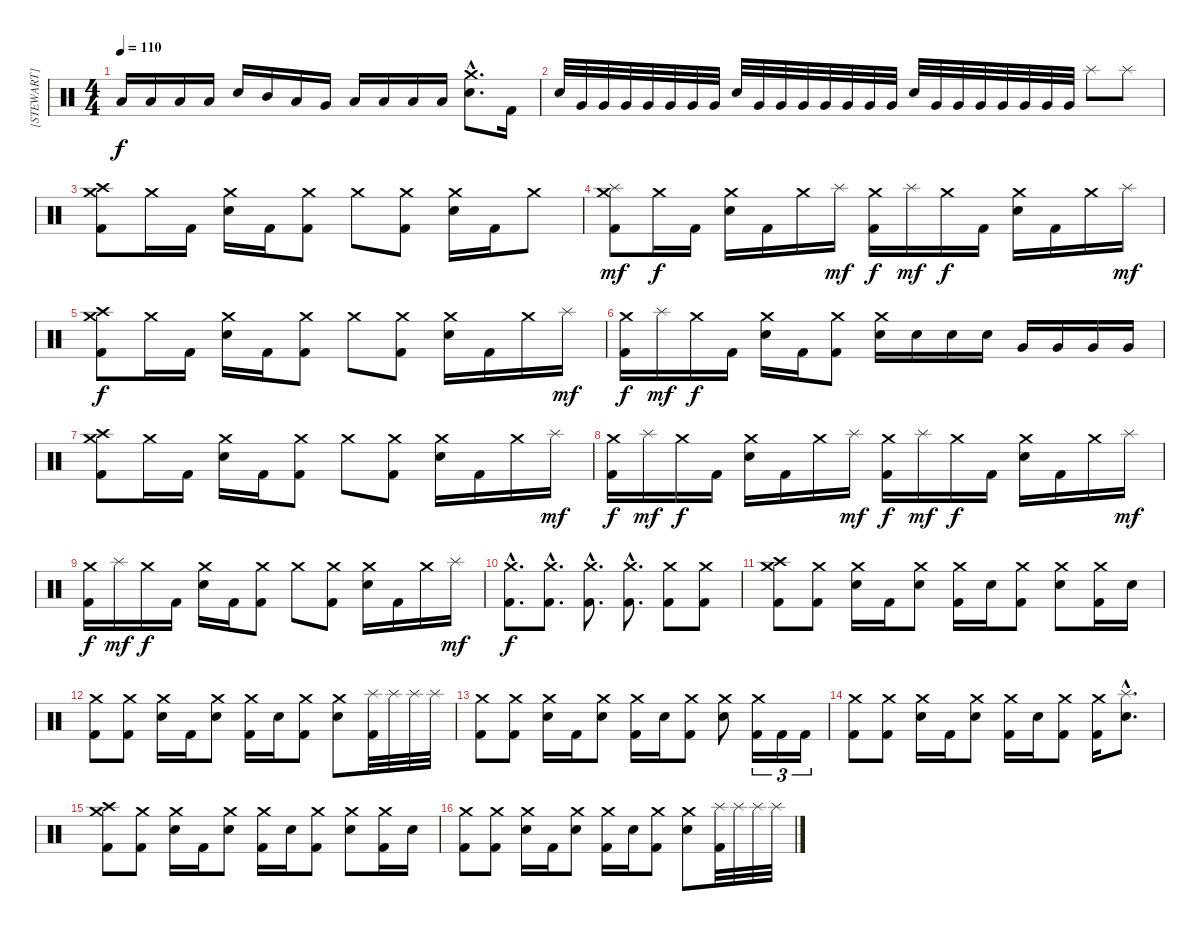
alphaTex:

\track ("[STEWART]" "[STEWART]") {instrument percussion}
\staff {score}
\articulation defaults
\ts (4 4)
\tempo 110
\clef neutral
\ks c "Low Floor Tom (hit)".16{dy f} "Low Floor Tom (hit)".16 "Low Floor Tom (hit)".16 "Low Floor Tom (hit)".16 "Electric Snare (hit)".16 "Mid Tom (hit)".16 "Low Tom (hit)".16 "Very Low Tom (hit)".16 "Low Floor Tom (hit)".16 "Low Floor Tom (hit)".16 "Low Floor Tom (hit)".16 "Low Floor Tom (hit)".16
("Crash medium (hit)"{hac} "Electric Snare (hit)"{hac}).8{d} "Kick (hit) 2".16 |
"Electric Snare (hit)".32 "Very Low Tom (hit)".32 "Very Low Tom (hit)".32 "Very Low Tom (hit)".32 "Very Low Tom (hit)".32 "Very Low Tom (hit)".32 "Very Low Tom (hit)".32 "Very Low Tom (hit)".32 "Electric Snare (hit)".32 "Very Low Tom (hit)".32 "Very Low Tom (hit)".32 "Very Low Tom (hit)".32 "Very Low Tom (hit)".32 "Very Low Tom (hit)".32 "Very Low Tom (hit)".32 "Very Low Tom (hit)".32 "Electric Snare (hit)".32 "Very Low Tom (hit)".32 "Very Low Tom (hit)".32 "Very Low Tom (hit)".32 "Very Low Tom (hit)".32 "Very Low Tom (hit)".32 "Very Low Tom (hit)".32 "Very Low Tom (hit)".32 "Splash (hit)".8 "Splash (hit)".8 |
("Crash medium (hit)" "Crash high (hit)" "Kick (hit) 2").8 "Crash medium (hit)".16 "Kick (hit) 2".16 ("Crash medium (hit)" "Electric Snare (hit)").16 "Kick (hit) 2".16 ("Crash medium (hit)" "Kick (hit) 2").8 "Crash medium (hit)".8 ("Crash medium (hit)" "Kick (hit) 2").8 ("Crash medium (hit)" "Electric Snare (hit)").16 "Kick (hit) 2".16 "Crash medium (hit)".8 |
("Crash medium (hit)" "Splash (hit)" "Kick (hit) 2").8{dy mf} "Crash medium (hit)".16{dy f} "Kick (hit) 2".16 ("Crash medium (hit)" "Electric Snare (hit)").16 "Kick (hit) 2".16 "Crash medium (hit)".16 "Splash (hit)".16{dy mf} ("Crash medium (hit)" "Kick (hit) 2").16{dy f} "Splash (hit)".16{dy mf} "Crash medium (hit)".16{dy f} "Kick (hit) 2".16 ("Crash medium (hit)" "Electric Snare (hit)").16 "Kick (hit) 2".16 "Crash medium (hit)".16 "Splash (hit)".16{dy mf} |
("Crash medium (hit)" "Crash high (hit)" "Kick (hit) 2").8{dy f} "Crash medium (hit)".16 "Kick (hit) 2".16 ("Crash medium (hit)" "Electric Snare (hit)").16 "Kick (hit) 2".16 ("Crash medium (hit)" "Kick (hit) 2").8 "Crash medium (hit)".8 ("Crash medium (hit)" "Kick (hit) 2").8 ("Crash medium (hit)" "Electric Snare (hit)").16 "Kick (hit) 2".16 "Crash medium (hit)".16 "Splash (hit)".16{dy mf} |
("Crash medium (hit)" "Kick (hit) 2").16{dy f} "Splash (hit)".16{dy mf} "Crash medium (hit)".16{dy f} "Kick (hit) 2".16 ("Crash medium (hit)" "Electric Snare (hit)").16 "Kick (hit) 2".16 ("Crash medium (hit)" "Kick (hit) 2").8 ("Crash medium (hit)" "Electric Snare (hit)").16 "Electric Snare (hit)".16 "Electric Snare (hit)".16 "Electric Snare (hit)".16 "Very Low Tom (hit)".16 "Very Low Tom (hit)".16 "Very Low Tom (hit)".16 "Very Low Tom (hit)".16 |
("Crash medium (hit)" "Crash high (hit)" "Kick (hit) 2").8 "Crash medium (hit)".16 "Kick (hit) 2".16 ("Crash medium (hit)" "Electric Snare (hit)").16 "Kick (hit) 2".16 ("Crash medium (hit)" "Kick (hit) 2").8 "Crash medium (hit)".8 ("Crash medium (hit)" "Kick (hit) 2").8 ("Crash medium (hit)" "Electric Snare (hit)").16 "Kick (hit) 2".16 "Crash medium (hit)".16 "Splash (hit)".16{dy mf} |
("Crash medium (hit)" "Kick (hit) 2").16{dy f} "Splash (hit)".16{dy mf} "Crash medium (hit)".16{dy f} "Kick (hit) 2".16 ("Crash medium (hit)" "Electric Snare (hit)").16 "Kick (hit) 2".16 "Crash medium (hit)".16 "Splash (hit)".16{dy mf} ("Crash medium (hit)" "Kick (hit) 2").16{dy f} "Splash (hit)".16{dy mf} "Crash medium (hit)".16{dy f} "Kick (hit) 2".16 ("Crash medium (hit)" "Electric Snare (hit)").16 "Kick (hit) 2".16 "Crash medium (hit)".16 "Splash (hit)".16{dy mf} |
("Crash medium (hit)" "Kick (hit) 2").16{dy f} "Splash (hit)".16{dy mf} "Crash medium (hit)".16{dy f} "Kick (hit) 2".16 ("Crash medium (hit)" "Electric Snare (hit)").16 "Kick (hit) 2".16 ("Crash medium (hit)" "Kick (hit) 2").8 "Crash medium (hit)".8 ("Crash medium (hit)" "Kick (hit) 2").8 ("Crash medium (hit)" "Electric Snare (hit)").16 "Kick (hit) 2".16 "Crash medium (hit)".16 "Splash (hit)".16{dy mf} |
("Crash medium (hit)"{hac} "Kick (hit) 2"{hac}).8{d dy f} ("Crash medium (hit)"{hac} "Kick (hit) 2"{hac}).8{d} ("Crash medium (hit)"{hac} "Kick (hit) 2"{hac}).8{d} ("Crash medium (hit)"{hac} "Kick (hit) 2"{hac}).8{d} ("Crash medium (hit)" "Kick (hit) 2").8 ("Crash medium (hit)" "Kick (hit) 2").8 |
("Crash medium (hit)" "Crash high (hit)" "Kick (hit) 2").8 ("Crash medium (hit)" "Kick (hit) 2").8 ("Crash medium (hit)" "Electric Snare (hit)").16 "Kick (hit) 2".16 ("Crash medium (hit)" "Electric Snare (hit)").8 ("Crash medium (hit)" "Kick (hit) 2").16 "Electric Snare (hit)".16 ("Crash medium (hit)" "Kick (hit) 2").8 ("Crash medium (hit)" "Electric Snare (hit)").8 ("Crash medium (hit)" "Kick (hit) 2").16 "Electric Snare (hit)".16 |
("Crash medium (hit)" "Kick (hit) 2").8 ("Crash medium (hit)" "Kick (hit) 2").8 ("Crash medium (hit)" "Electric Snare (hit)").16 "Kick (hit) 2".16 ("Crash medium (hit)" "Electric Snare (hit)").8 ("Crash medium (hit)" "Kick (hit) 2").16 "Electric Snare (hit)".16 ("Crash medium (hit)" "Kick (hit) 2").8 ("Crash medium (hit)" "Electric Snare (hit)").8 ("Splash (hit)" "Kick (hit) 2").32 "Splash (hit)".32 "Splash (hit)".32 "Splash (hit)".32 |
("Crash medium (hit)" "Kick (hit) 2").8 ("Crash medium (hit)" "Kick (hit) 2").8 ("Crash medium (hit)" "Electric Snare (hit)").16 "Kick (hit) 2".16 ("Crash medium (hit)" "Electric Snare (hit)").8 ("Crash medium (hit)" "Kick (hit) 2").16 "Electric Snare (hit)".16 ("Crash medium (hit)" "Kick (hit) 2").8 ("Crash medium (hit)" "Electric Snare (hit)").8 ("Crash medium (hit)" "Kick (hit) 2").16{tu (3 2)} "Kick (hit) 2".16{tu (3 2)} "Kick (hit) 2".16{tu (3 2)} |
("Crash medium (hit)" "Kick (hit) 2").8 ("Crash medium (hit)" "Kick (hit) 2").8 ("Crash medium (hit)" "Electric Snare (hit)").16 "Kick (hit) 2".16 ("Crash medium (hit)" "Electric Snare (hit)").8 ("Crash medium (hit)" "Kick (hit) 2").16 "Electric Snare (hit)".16 ("Crash medium (hit)" "Kick (hit) 2").8 ("Crash medium (hit)" "Kick (hit) 2").16 ("Splash (hit)"{hac} "Electric Snare (hit)"{hac}).8{d} |
("Crash medium (hit)" "Crash high (hit)" "Kick (hit) 2").8 ("Crash medium (hit)" "Kick (hit) 2").8 ("Crash medium (hit)" "Electric Snare (hit)").16 "Kick (hit) 2".16 ("Crash medium (hit)" "Electric Snare (hit)").8 ("Crash medium (hit)" "Kick (hit) 2").16 "Electric Snare (hit)".16 ("Crash medium (hit)" "Kick (hit) 2").8 ("Crash medium (hit)" "Electric Snare (hit)").8 ("Crash medium (hit)" "Kick (hit) 2").16 "Electric Snare (hit)".16 |
("Crash medium (hit)" "Kick (hit) 2").8 ("Crash medium (hit)" "Kick (hit) 2").8 ("Crash medium (hit)" "Electric Snare (hit)").16 "Kick (hit) 2".16 ("Crash medium (hit)" "Electric Snare (hit)").8 ("Crash medium (hit)" "Kick (hit) 2").16 "Electric Snare (hit)".16 ("Crash medium (hit)" "Kick (hit) 2").8 ("Crash medium (hit)" "Electric Snare (hit)").8 ("Splash (hit)" "Kick (hit) 2").32 "Splash (hit)".32 "Splash (hit)".32 "Splash (hit)".32
